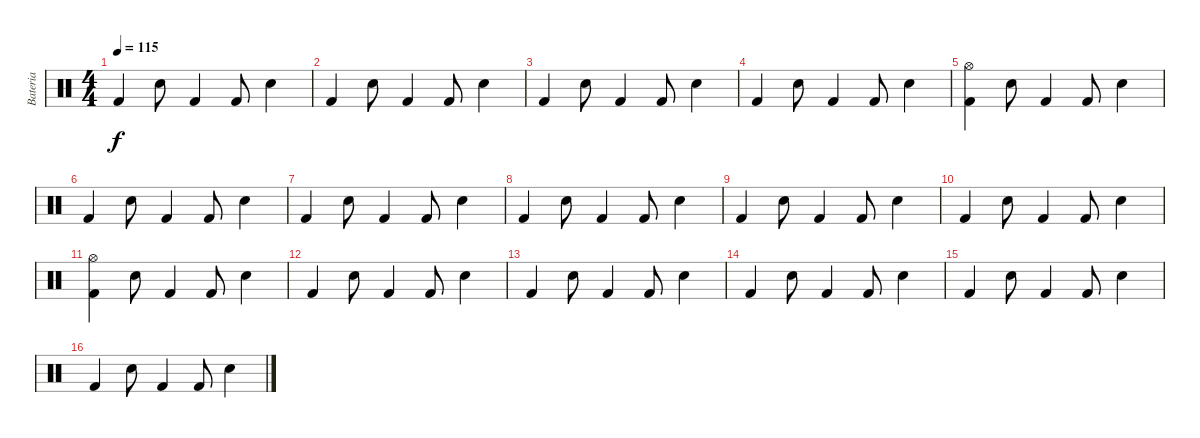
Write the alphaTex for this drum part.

\track ("Bateria" "Bateria") {instrument percussion}
\staff {score}
\articulation defaults
\ts (4 4)
\tempo 115
\clef neutral
\ks c "Kick (hit) 2".4{dy f} "Snare (hit) 2".8 "Kick (hit) 2".4 "Kick (hit) 2".8 "Snare (hit) 2".4
|
"Kick (hit) 2".4 "Snare (hit) 2".8 "Kick (hit) 2".4 "Kick (hit) 2".8 "Snare (hit) 2".4 |
"Kick (hit) 2".4 "Snare (hit) 2".8 "Kick (hit) 2".4 "Kick (hit) 2".8 "Snare (hit) 2".4 |
"Kick (hit) 2".4 "Snare (hit) 2".8 "Kick (hit) 2".4 "Kick (hit) 2".8 "Snare (hit) 2".4 |
("Kick (hit) 2" "Hi-Hat (open)").4 "Snare (hit) 2".8 "Kick (hit) 2".4 "Kick (hit) 2".8 "Snare (hit) 2".4 |
"Kick (hit) 2".4 "Snare (hit) 2".8 "Kick (hit) 2".4 "Kick (hit) 2".8 "Snare (hit) 2".4 |
"Kick (hit) 2".4 "Snare (hit) 2".8 "Kick (hit) 2".4 "Kick (hit) 2".8 "Snare (hit) 2".4 |
"Kick (hit) 2".4 "Snare (hit) 2".8 "Kick (hit) 2".4 "Kick (hit) 2".8 "Snare (hit) 2".4 |
"Kick (hit) 2".4 "Snare (hit) 2".8 "Kick (hit) 2".4 "Kick (hit) 2".8 "Snare (hit) 2".4 |
"Kick (hit) 2".4 "Snare (hit) 2".8 "Kick (hit) 2".4 "Kick (hit) 2".8 "Snare (hit) 2".4 |
("Kick (hit) 2" "Hi-Hat (open)").4 "Snare (hit) 2".8 "Kick (hit) 2".4 "Kick (hit) 2".8 "Snare (hit) 2".4 |
"Kick (hit) 2".4 "Snare (hit) 2".8 "Kick (hit) 2".4 "Kick (hit) 2".8 "Snare (hit) 2".4 |
"Kick (hit) 2".4 "Snare (hit) 2".8 "Kick (hit) 2".4 "Kick (hit) 2".8 "Snare (hit) 2".4 |
"Kick (hit) 2".4 "Snare (hit) 2".8 "Kick (hit) 2".4 "Kick (hit) 2".8 "Snare (hit) 2".4 |
"Kick (hit) 2".4 "Snare (hit) 2".8 "Kick (hit) 2".4 "Kick (hit) 2".8 "Snare (hit) 2".4 |
"Kick (hit) 2".4 "Snare (hit) 2".8 "Kick (hit) 2".4 "Kick (hit) 2".8 "Snare (hit) 2".4
